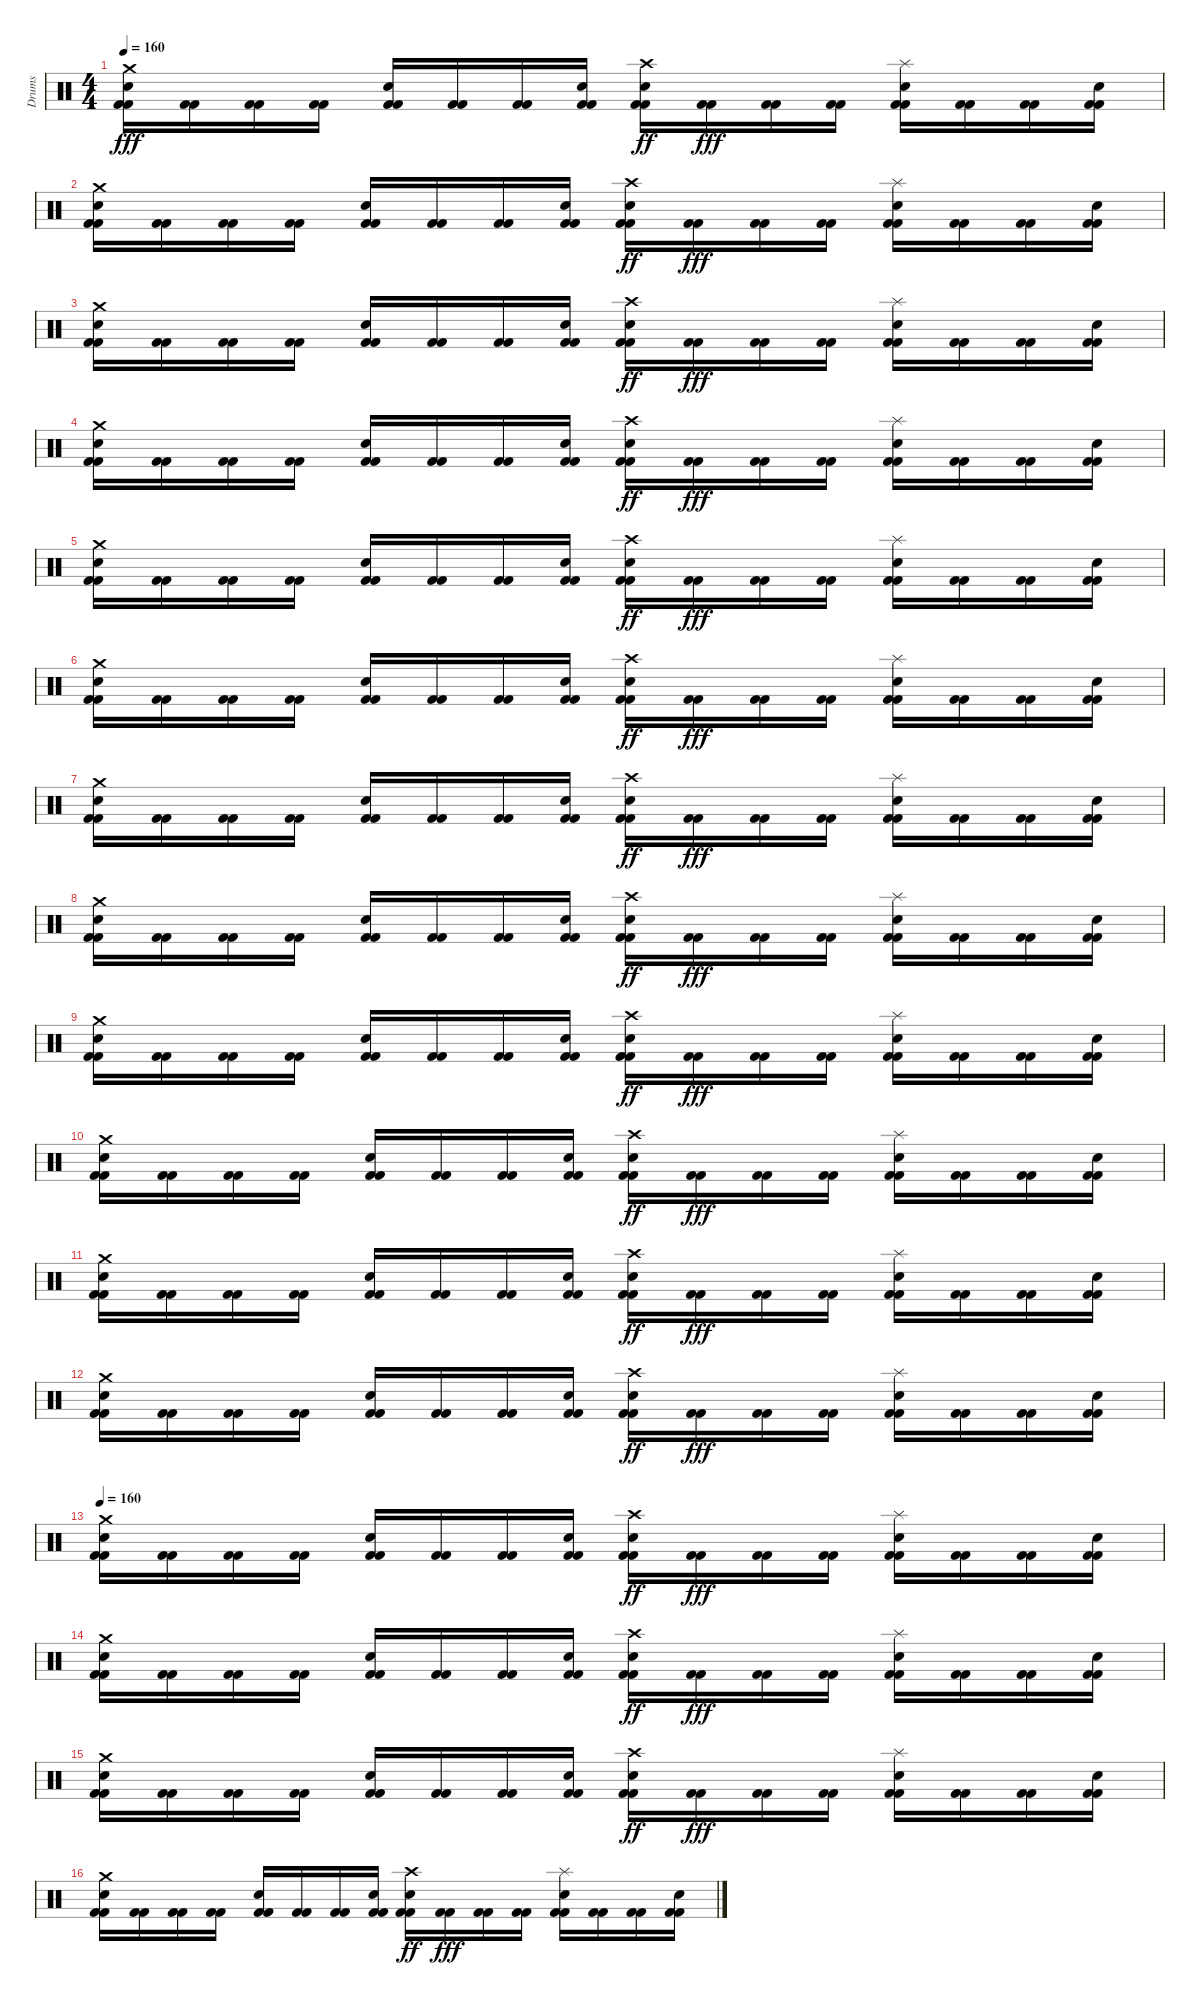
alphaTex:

\track ("Drums" "Drums") {instrument percussion}
\staff {score}
\articulation defaults
\ts (4 4)
\tempo 160
\clef neutral
\ks c
("Kick (hit) 2" "Kick (hit) 2" "Electric Snare (hit)" "Crash medium (hit)").16{dy fff} ("Kick (hit) 2" "Kick (hit) 2").16 ("Kick (hit) 2" "Kick (hit) 2").16 ("Kick (hit) 2" "Kick (hit) 2").16 ("Kick (hit) 2" "Kick (hit) 2" "Electric Snare (hit)").16 ("Kick (hit) 2" "Kick (hit) 2").16 ("Kick (hit) 2" "Kick (hit) 2").16 ("Kick (hit) 2" "Kick (hit) 2" "Electric Snare (hit)").16 ("Kick (hit) 2" "Kick (hit) 2" "Electric Snare (hit)" "Crash high (hit)").16{dy ff} ("Kick (hit) 2" "Kick (hit) 2").16{dy fff} ("Kick (hit) 2" "Kick (hit) 2").16 ("Kick (hit) 2" "Kick (hit) 2").16 ("Kick (hit) 2" "Kick (hit) 2" "Electric Snare (hit)" "Splash (hit)").16 ("Kick (hit) 2" "Kick (hit) 2").16 ("Kick (hit) 2" "Kick (hit) 2").16 ("Kick (hit) 2" "Kick (hit) 2" "Electric Snare (hit)").16 |
("Kick (hit) 2" "Kick (hit) 2" "Electric Snare (hit)" "Crash medium (hit)").16 ("Kick (hit) 2" "Kick (hit) 2").16 ("Kick (hit) 2" "Kick (hit) 2").16 ("Kick (hit) 2" "Kick (hit) 2").16 ("Kick (hit) 2" "Kick (hit) 2" "Electric Snare (hit)").16 ("Kick (hit) 2" "Kick (hit) 2").16 ("Kick (hit) 2" "Kick (hit) 2").16 ("Kick (hit) 2" "Kick (hit) 2" "Electric Snare (hit)").16 ("Kick (hit) 2" "Kick (hit) 2" "Electric Snare (hit)" "Crash high (hit)").16{dy ff} ("Kick (hit) 2" "Kick (hit) 2").16{dy fff} ("Kick (hit) 2" "Kick (hit) 2").16 ("Kick (hit) 2" "Kick (hit) 2").16 ("Kick (hit) 2" "Kick (hit) 2" "Electric Snare (hit)" "Splash (hit)").16 ("Kick (hit) 2" "Kick (hit) 2").16 ("Kick (hit) 2" "Kick (hit) 2").16 ("Kick (hit) 2" "Kick (hit) 2" "Electric Snare (hit)").16 |
("Kick (hit) 2" "Kick (hit) 2" "Electric Snare (hit)" "Crash medium (hit)").16 ("Kick (hit) 2" "Kick (hit) 2").16 ("Kick (hit) 2" "Kick (hit) 2").16 ("Kick (hit) 2" "Kick (hit) 2").16 ("Kick (hit) 2" "Kick (hit) 2" "Electric Snare (hit)").16 ("Kick (hit) 2" "Kick (hit) 2").16 ("Kick (hit) 2" "Kick (hit) 2").16 ("Kick (hit) 2" "Kick (hit) 2" "Electric Snare (hit)").16 ("Kick (hit) 2" "Kick (hit) 2" "Electric Snare (hit)" "Crash high (hit)").16{dy ff} ("Kick (hit) 2" "Kick (hit) 2").16{dy fff} ("Kick (hit) 2" "Kick (hit) 2").16 ("Kick (hit) 2" "Kick (hit) 2").16 ("Kick (hit) 2" "Kick (hit) 2" "Electric Snare (hit)" "Splash (hit)").16 ("Kick (hit) 2" "Kick (hit) 2").16 ("Kick (hit) 2" "Kick (hit) 2").16 ("Kick (hit) 2" "Kick (hit) 2" "Electric Snare (hit)").16 |
("Kick (hit) 2" "Kick (hit) 2" "Electric Snare (hit)" "Crash medium (hit)").16 ("Kick (hit) 2" "Kick (hit) 2").16 ("Kick (hit) 2" "Kick (hit) 2").16 ("Kick (hit) 2" "Kick (hit) 2").16 ("Kick (hit) 2" "Kick (hit) 2" "Electric Snare (hit)").16 ("Kick (hit) 2" "Kick (hit) 2").16 ("Kick (hit) 2" "Kick (hit) 2").16 ("Kick (hit) 2" "Kick (hit) 2" "Electric Snare (hit)").16 ("Kick (hit) 2" "Kick (hit) 2" "Electric Snare (hit)" "Crash high (hit)").16{dy ff} ("Kick (hit) 2" "Kick (hit) 2").16{dy fff} ("Kick (hit) 2" "Kick (hit) 2").16 ("Kick (hit) 2" "Kick (hit) 2").16 ("Kick (hit) 2" "Kick (hit) 2" "Electric Snare (hit)" "Splash (hit)").16 ("Kick (hit) 2" "Kick (hit) 2").16 ("Kick (hit) 2" "Kick (hit) 2").16 ("Kick (hit) 2" "Kick (hit) 2" "Electric Snare (hit)").16 |
("Kick (hit) 2" "Kick (hit) 2" "Electric Snare (hit)" "Crash medium (hit)").16 ("Kick (hit) 2" "Kick (hit) 2").16 ("Kick (hit) 2" "Kick (hit) 2").16 ("Kick (hit) 2" "Kick (hit) 2").16 ("Kick (hit) 2" "Kick (hit) 2" "Electric Snare (hit)").16 ("Kick (hit) 2" "Kick (hit) 2").16 ("Kick (hit) 2" "Kick (hit) 2").16 ("Kick (hit) 2" "Kick (hit) 2" "Electric Snare (hit)").16 ("Kick (hit) 2" "Kick (hit) 2" "Electric Snare (hit)" "Crash high (hit)").16{dy ff} ("Kick (hit) 2" "Kick (hit) 2").16{dy fff} ("Kick (hit) 2" "Kick (hit) 2").16 ("Kick (hit) 2" "Kick (hit) 2").16 ("Kick (hit) 2" "Kick (hit) 2" "Electric Snare (hit)" "Splash (hit)").16 ("Kick (hit) 2" "Kick (hit) 2").16 ("Kick (hit) 2" "Kick (hit) 2").16 ("Kick (hit) 2" "Kick (hit) 2" "Electric Snare (hit)").16 |
("Kick (hit) 2" "Kick (hit) 2" "Electric Snare (hit)" "Crash medium (hit)").16 ("Kick (hit) 2" "Kick (hit) 2").16 ("Kick (hit) 2" "Kick (hit) 2").16 ("Kick (hit) 2" "Kick (hit) 2").16 ("Kick (hit) 2" "Kick (hit) 2" "Electric Snare (hit)").16 ("Kick (hit) 2" "Kick (hit) 2").16 ("Kick (hit) 2" "Kick (hit) 2").16 ("Kick (hit) 2" "Kick (hit) 2" "Electric Snare (hit)").16 ("Kick (hit) 2" "Kick (hit) 2" "Electric Snare (hit)" "Crash high (hit)").16{dy ff} ("Kick (hit) 2" "Kick (hit) 2").16{dy fff} ("Kick (hit) 2" "Kick (hit) 2").16 ("Kick (hit) 2" "Kick (hit) 2").16 ("Kick (hit) 2" "Kick (hit) 2" "Electric Snare (hit)" "Splash (hit)").16 ("Kick (hit) 2" "Kick (hit) 2").16 ("Kick (hit) 2" "Kick (hit) 2").16 ("Kick (hit) 2" "Kick (hit) 2" "Electric Snare (hit)").16 |
("Kick (hit) 2" "Kick (hit) 2" "Electric Snare (hit)" "Crash medium (hit)").16 ("Kick (hit) 2" "Kick (hit) 2").16 ("Kick (hit) 2" "Kick (hit) 2").16 ("Kick (hit) 2" "Kick (hit) 2").16 ("Kick (hit) 2" "Kick (hit) 2" "Electric Snare (hit)").16 ("Kick (hit) 2" "Kick (hit) 2").16 ("Kick (hit) 2" "Kick (hit) 2").16 ("Kick (hit) 2" "Kick (hit) 2" "Electric Snare (hit)").16 ("Kick (hit) 2" "Kick (hit) 2" "Electric Snare (hit)" "Crash high (hit)").16{dy ff} ("Kick (hit) 2" "Kick (hit) 2").16{dy fff} ("Kick (hit) 2" "Kick (hit) 2").16 ("Kick (hit) 2" "Kick (hit) 2").16 ("Kick (hit) 2" "Kick (hit) 2" "Electric Snare (hit)" "Splash (hit)").16 ("Kick (hit) 2" "Kick (hit) 2").16 ("Kick (hit) 2" "Kick (hit) 2").16 ("Kick (hit) 2" "Kick (hit) 2" "Electric Snare (hit)").16 |
("Kick (hit) 2" "Kick (hit) 2" "Electric Snare (hit)" "Crash medium (hit)").16 ("Kick (hit) 2" "Kick (hit) 2").16 ("Kick (hit) 2" "Kick (hit) 2").16 ("Kick (hit) 2" "Kick (hit) 2").16 ("Kick (hit) 2" "Kick (hit) 2" "Electric Snare (hit)").16 ("Kick (hit) 2" "Kick (hit) 2").16 ("Kick (hit) 2" "Kick (hit) 2").16 ("Kick (hit) 2" "Kick (hit) 2" "Electric Snare (hit)").16 ("Kick (hit) 2" "Kick (hit) 2" "Electric Snare (hit)" "Crash high (hit)").16{dy ff} ("Kick (hit) 2" "Kick (hit) 2").16{dy fff} ("Kick (hit) 2" "Kick (hit) 2").16 ("Kick (hit) 2" "Kick (hit) 2").16 ("Kick (hit) 2" "Kick (hit) 2" "Electric Snare (hit)" "Splash (hit)").16 ("Kick (hit) 2" "Kick (hit) 2").16 ("Kick (hit) 2" "Kick (hit) 2").16 ("Kick (hit) 2" "Kick (hit) 2" "Electric Snare (hit)").16 |
("Kick (hit) 2" "Kick (hit) 2" "Electric Snare (hit)" "Crash medium (hit)").16 ("Kick (hit) 2" "Kick (hit) 2").16 ("Kick (hit) 2" "Kick (hit) 2").16 ("Kick (hit) 2" "Kick (hit) 2").16 ("Kick (hit) 2" "Kick (hit) 2" "Electric Snare (hit)").16 ("Kick (hit) 2" "Kick (hit) 2").16 ("Kick (hit) 2" "Kick (hit) 2").16 ("Kick (hit) 2" "Kick (hit) 2" "Electric Snare (hit)").16 ("Kick (hit) 2" "Kick (hit) 2" "Electric Snare (hit)" "Crash high (hit)").16{dy ff} ("Kick (hit) 2" "Kick (hit) 2").16{dy fff} ("Kick (hit) 2" "Kick (hit) 2").16 ("Kick (hit) 2" "Kick (hit) 2").16 ("Kick (hit) 2" "Kick (hit) 2" "Electric Snare (hit)" "Splash (hit)").16 ("Kick (hit) 2" "Kick (hit) 2").16 ("Kick (hit) 2" "Kick (hit) 2").16 ("Kick (hit) 2" "Kick (hit) 2" "Electric Snare (hit)").16 |
("Kick (hit) 2" "Kick (hit) 2" "Electric Snare (hit)" "Crash medium (hit)").16 ("Kick (hit) 2" "Kick (hit) 2").16 ("Kick (hit) 2" "Kick (hit) 2").16 ("Kick (hit) 2" "Kick (hit) 2").16 ("Kick (hit) 2" "Kick (hit) 2" "Electric Snare (hit)").16 ("Kick (hit) 2" "Kick (hit) 2").16 ("Kick (hit) 2" "Kick (hit) 2").16 ("Kick (hit) 2" "Kick (hit) 2" "Electric Snare (hit)").16 ("Kick (hit) 2" "Kick (hit) 2" "Electric Snare (hit)" "Crash high (hit)").16{dy ff} ("Kick (hit) 2" "Kick (hit) 2").16{dy fff} ("Kick (hit) 2" "Kick (hit) 2").16 ("Kick (hit) 2" "Kick (hit) 2").16 ("Kick (hit) 2" "Kick (hit) 2" "Electric Snare (hit)" "Splash (hit)").16 ("Kick (hit) 2" "Kick (hit) 2").16 ("Kick (hit) 2" "Kick (hit) 2").16 ("Kick (hit) 2" "Kick (hit) 2" "Electric Snare (hit)").16 |
("Kick (hit) 2" "Kick (hit) 2" "Electric Snare (hit)" "Crash medium (hit)").16 ("Kick (hit) 2" "Kick (hit) 2").16 ("Kick (hit) 2" "Kick (hit) 2").16 ("Kick (hit) 2" "Kick (hit) 2").16 ("Kick (hit) 2" "Kick (hit) 2" "Electric Snare (hit)").16 ("Kick (hit) 2" "Kick (hit) 2").16 ("Kick (hit) 2" "Kick (hit) 2").16 ("Kick (hit) 2" "Kick (hit) 2" "Electric Snare (hit)").16 ("Kick (hit) 2" "Kick (hit) 2" "Electric Snare (hit)" "Crash high (hit)").16{dy ff} ("Kick (hit) 2" "Kick (hit) 2").16{dy fff} ("Kick (hit) 2" "Kick (hit) 2").16 ("Kick (hit) 2" "Kick (hit) 2").16 ("Kick (hit) 2" "Kick (hit) 2" "Electric Snare (hit)" "Splash (hit)").16 ("Kick (hit) 2" "Kick (hit) 2").16 ("Kick (hit) 2" "Kick (hit) 2").16 ("Kick (hit) 2" "Kick (hit) 2" "Electric Snare (hit)").16 |
("Kick (hit) 2" "Kick (hit) 2" "Electric Snare (hit)" "Crash medium (hit)").16 ("Kick (hit) 2" "Kick (hit) 2").16 ("Kick (hit) 2" "Kick (hit) 2").16 ("Kick (hit) 2" "Kick (hit) 2").16 ("Kick (hit) 2" "Kick (hit) 2" "Electric Snare (hit)").16 ("Kick (hit) 2" "Kick (hit) 2").16 ("Kick (hit) 2" "Kick (hit) 2").16 ("Kick (hit) 2" "Kick (hit) 2" "Electric Snare (hit)").16 ("Kick (hit) 2" "Kick (hit) 2" "Electric Snare (hit)" "Crash high (hit)").16{dy ff} ("Kick (hit) 2" "Kick (hit) 2").16{dy fff} ("Kick (hit) 2" "Kick (hit) 2").16 ("Kick (hit) 2" "Kick (hit) 2").16 ("Kick (hit) 2" "Kick (hit) 2" "Electric Snare (hit)" "Splash (hit)").16 ("Kick (hit) 2" "Kick (hit) 2").16 ("Kick (hit) 2" "Kick (hit) 2").16 ("Kick (hit) 2" "Kick (hit) 2" "Electric Snare (hit)").16 |
\tempo 160
("Kick (hit) 2" "Kick (hit) 2" "Electric Snare (hit)" "Crash medium (hit)").16 ("Kick (hit) 2" "Kick (hit) 2").16 ("Kick (hit) 2" "Kick (hit) 2").16 ("Kick (hit) 2" "Kick (hit) 2").16 ("Kick (hit) 2" "Kick (hit) 2" "Electric Snare (hit)").16 ("Kick (hit) 2" "Kick (hit) 2").16 ("Kick (hit) 2" "Kick (hit) 2").16 ("Kick (hit) 2" "Kick (hit) 2" "Electric Snare (hit)").16 ("Kick (hit) 2" "Kick (hit) 2" "Electric Snare (hit)" "Crash high (hit)").16{dy ff} ("Kick (hit) 2" "Kick (hit) 2").16{dy fff} ("Kick (hit) 2" "Kick (hit) 2").16 ("Kick (hit) 2" "Kick (hit) 2").16 ("Kick (hit) 2" "Kick (hit) 2" "Electric Snare (hit)" "Splash (hit)").16 ("Kick (hit) 2" "Kick (hit) 2").16 ("Kick (hit) 2" "Kick (hit) 2").16 ("Kick (hit) 2" "Kick (hit) 2" "Electric Snare (hit)").16 |
("Kick (hit) 2" "Kick (hit) 2" "Electric Snare (hit)" "Crash medium (hit)").16 ("Kick (hit) 2" "Kick (hit) 2").16 ("Kick (hit) 2" "Kick (hit) 2").16 ("Kick (hit) 2" "Kick (hit) 2").16 ("Kick (hit) 2" "Kick (hit) 2" "Electric Snare (hit)").16 ("Kick (hit) 2" "Kick (hit) 2").16 ("Kick (hit) 2" "Kick (hit) 2").16 ("Kick (hit) 2" "Kick (hit) 2" "Electric Snare (hit)").16 ("Kick (hit) 2" "Kick (hit) 2" "Electric Snare (hit)" "Crash high (hit)").16{dy ff} ("Kick (hit) 2" "Kick (hit) 2").16{dy fff} ("Kick (hit) 2" "Kick (hit) 2").16 ("Kick (hit) 2" "Kick (hit) 2").16 ("Kick (hit) 2" "Kick (hit) 2" "Electric Snare (hit)" "Splash (hit)").16 ("Kick (hit) 2" "Kick (hit) 2").16 ("Kick (hit) 2" "Kick (hit) 2").16 ("Kick (hit) 2" "Kick (hit) 2" "Electric Snare (hit)").16 |
("Kick (hit) 2" "Kick (hit) 2" "Electric Snare (hit)" "Crash medium (hit)").16 ("Kick (hit) 2" "Kick (hit) 2").16 ("Kick (hit) 2" "Kick (hit) 2").16 ("Kick (hit) 2" "Kick (hit) 2").16 ("Kick (hit) 2" "Kick (hit) 2" "Electric Snare (hit)").16 ("Kick (hit) 2" "Kick (hit) 2").16 ("Kick (hit) 2" "Kick (hit) 2").16 ("Kick (hit) 2" "Kick (hit) 2" "Electric Snare (hit)").16 ("Kick (hit) 2" "Kick (hit) 2" "Electric Snare (hit)" "Crash high (hit)").16{dy ff} ("Kick (hit) 2" "Kick (hit) 2").16{dy fff} ("Kick (hit) 2" "Kick (hit) 2").16 ("Kick (hit) 2" "Kick (hit) 2").16 ("Kick (hit) 2" "Kick (hit) 2" "Electric Snare (hit)" "Splash (hit)").16 ("Kick (hit) 2" "Kick (hit) 2").16 ("Kick (hit) 2" "Kick (hit) 2").16 ("Kick (hit) 2" "Kick (hit) 2" "Electric Snare (hit)").16 |
("Kick (hit) 2" "Kick (hit) 2" "Electric Snare (hit)" "Crash medium (hit)").16 ("Kick (hit) 2" "Kick (hit) 2").16 ("Kick (hit) 2" "Kick (hit) 2").16 ("Kick (hit) 2" "Kick (hit) 2").16 ("Kick (hit) 2" "Kick (hit) 2" "Electric Snare (hit)").16 ("Kick (hit) 2" "Kick (hit) 2").16 ("Kick (hit) 2" "Kick (hit) 2").16 ("Kick (hit) 2" "Kick (hit) 2" "Electric Snare (hit)").16 ("Kick (hit) 2" "Kick (hit) 2" "Electric Snare (hit)" "Crash high (hit)").16{dy ff} ("Kick (hit) 2" "Kick (hit) 2").16{dy fff} ("Kick (hit) 2" "Kick (hit) 2").16 ("Kick (hit) 2" "Kick (hit) 2").16 ("Kick (hit) 2" "Kick (hit) 2" "Electric Snare (hit)" "Splash (hit)").16 ("Kick (hit) 2" "Kick (hit) 2").16 ("Kick (hit) 2" "Kick (hit) 2").16 ("Kick (hit) 2" "Kick (hit) 2" "Electric Snare (hit)").16
